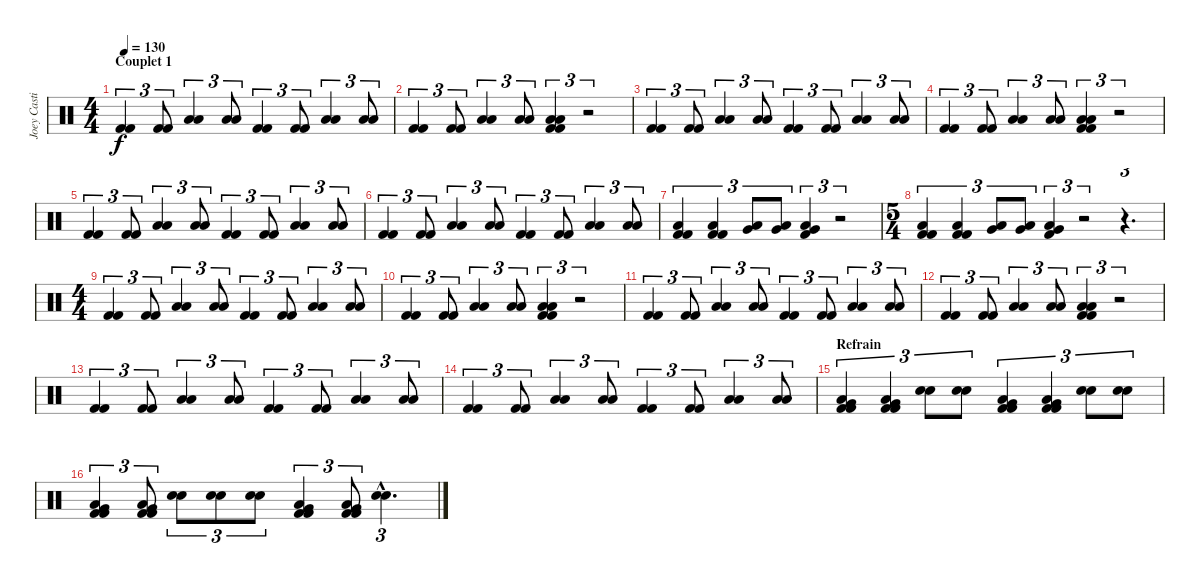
\track ("Joey Castillo" "Joey Casti") {instrument percussion}
\staff {score}
\articulation defaults
\ts (4 4)
\section ("" "Couplet 1")
\tempo 130
\clef neutral
\ks c
("Kick (hit) 2" "Kick (hit) 2").4{tu (3 2) dy f} ("Kick (hit) 2" "Kick (hit) 2").8{tu (3 2)} ("Low Floor Tom (hit)" "Low Floor Tom (hit)").4{tu (3 2)} ("Low Floor Tom (hit)" "Low Floor Tom (hit)").8{tu (3 2)} ("Kick (hit) 2" "Kick (hit) 2").4{tu (3 2)} ("Kick (hit) 2" "Kick (hit) 2").8{tu (3 2)} ("Low Floor Tom (hit)" "Low Floor Tom (hit)").4{tu (3 2)} ("Low Floor Tom (hit)" "Low Floor Tom (hit)").8{tu (3 2)} |
("Kick (hit) 2" "Kick (hit) 2").4{tu (3 2)} ("Kick (hit) 2" "Kick (hit) 2").8{tu (3 2)} ("Low Floor Tom (hit)" "Low Floor Tom (hit)").4{tu (3 2)} ("Low Floor Tom (hit)" "Low Floor Tom (hit)").8{tu (3 2)} ("Low Floor Tom (hit)" "Low Floor Tom (hit)" "Kick (hit) 2" "Kick (hit) 2").4{tu (3 2)} r.2{tu (3 2)} |
("Kick (hit) 2" "Kick (hit) 2").4{tu (3 2)} ("Kick (hit) 2" "Kick (hit) 2").8{tu (3 2)} ("Low Floor Tom (hit)" "Low Floor Tom (hit)").4{tu (3 2)} ("Low Floor Tom (hit)" "Low Floor Tom (hit)").8{tu (3 2)} ("Kick (hit) 2" "Kick (hit) 2").4{tu (3 2)} ("Kick (hit) 2" "Kick (hit) 2").8{tu (3 2)} ("Low Floor Tom (hit)" "Low Floor Tom (hit)").4{tu (3 2)} ("Low Floor Tom (hit)" "Low Floor Tom (hit)").8{tu (3 2)} |
("Kick (hit) 2" "Kick (hit) 2").4{tu (3 2)} ("Kick (hit) 2" "Kick (hit) 2").8{tu (3 2)} ("Low Floor Tom (hit)" "Low Floor Tom (hit)").4{tu (3 2)} ("Low Floor Tom (hit)" "Low Floor Tom (hit)").8{tu (3 2)} ("Low Floor Tom (hit)" "Low Floor Tom (hit)" "Kick (hit) 2" "Kick (hit) 2").4{tu (3 2)} r.2{tu (3 2)} |
("Kick (hit) 2" "Kick (hit) 2").4{tu (3 2)} ("Kick (hit) 2" "Kick (hit) 2").8{tu (3 2)} ("Low Floor Tom (hit)" "Low Floor Tom (hit)").4{tu (3 2)} ("Low Floor Tom (hit)" "Low Floor Tom (hit)").8{tu (3 2)} ("Kick (hit) 2" "Kick (hit) 2").4{tu (3 2)} ("Kick (hit) 2" "Kick (hit) 2").8{tu (3 2)} ("Low Floor Tom (hit)" "Low Floor Tom (hit)").4{tu (3 2)} ("Low Floor Tom (hit)" "Low Floor Tom (hit)").8{tu (3 2)} |
("Kick (hit) 2" "Kick (hit) 2").4{tu (3 2)} ("Kick (hit) 2" "Kick (hit) 2").8{tu (3 2)} ("Low Floor Tom (hit)" "Low Floor Tom (hit)").4{tu (3 2)} ("Low Floor Tom (hit)" "Low Floor Tom (hit)").8{tu (3 2)} ("Kick (hit) 2" "Kick (hit) 2").4{tu (3 2)} ("Kick (hit) 2" "Kick (hit) 2").8{tu (3 2)} ("Low Floor Tom (hit)" "Low Floor Tom (hit)").4{tu (3 2)} ("Low Floor Tom (hit)" "Low Floor Tom (hit)").8{tu (3 2)} |
("Low Floor Tom (hit)" "Kick (hit) 2" "Kick (hit) 2").4{tu (3 2)} ("Low Floor Tom (hit)" "Kick (hit) 2" "Kick (hit) 2").4{tu (3 2)} ("Very Low Tom (hit)" "Low Floor Tom (hit)").8{tu (3 2)} ("Very Low Tom (hit)" "Low Floor Tom (hit)").8{tu (3 2)} ("Very Low Tom (hit)" "Low Floor Tom (hit)" "Kick (hit) 2").4{tu (3 2)} r.2{tu (3 2)} |
\ts (5 4)
("Low Floor Tom (hit)" "Kick (hit) 2" "Kick (hit) 2").4{tu (3 2)} ("Low Floor Tom (hit)" "Kick (hit) 2" "Kick (hit) 2").4{tu (3 2)} ("Very Low Tom (hit)" "Low Floor Tom (hit)").8{tu (3 2)} ("Very Low Tom (hit)" "Low Floor Tom (hit)").8{tu (3 2)} ("Very Low Tom (hit)" "Low Floor Tom (hit)" "Kick (hit) 2").4{tu (3 2)} r.2{tu (3 2)} r.4{d tu (3 2)} |
\ts (4 4)
("Kick (hit) 2" "Kick (hit) 2").4{tu (3 2)} ("Kick (hit) 2" "Kick (hit) 2").8{tu (3 2)} ("Low Floor Tom (hit)" "Low Floor Tom (hit)").4{tu (3 2)} ("Low Floor Tom (hit)" "Low Floor Tom (hit)").8{tu (3 2)} ("Kick (hit) 2" "Kick (hit) 2").4{tu (3 2)} ("Kick (hit) 2" "Kick (hit) 2").8{tu (3 2)} ("Low Floor Tom (hit)" "Low Floor Tom (hit)").4{tu (3 2)} ("Low Floor Tom (hit)" "Low Floor Tom (hit)").8{tu (3 2)} |
("Kick (hit) 2" "Kick (hit) 2").4{tu (3 2)} ("Kick (hit) 2" "Kick (hit) 2").8{tu (3 2)} ("Low Floor Tom (hit)" "Low Floor Tom (hit)").4{tu (3 2)} ("Low Floor Tom (hit)" "Low Floor Tom (hit)").8{tu (3 2)} ("Low Floor Tom (hit)" "Low Floor Tom (hit)" "Kick (hit) 2" "Kick (hit) 2").4{tu (3 2)} r.2{tu (3 2)} |
("Kick (hit) 2" "Kick (hit) 2").4{tu (3 2)} ("Kick (hit) 2" "Kick (hit) 2").8{tu (3 2)} ("Low Floor Tom (hit)" "Low Floor Tom (hit)").4{tu (3 2)} ("Low Floor Tom (hit)" "Low Floor Tom (hit)").8{tu (3 2)} ("Kick (hit) 2" "Kick (hit) 2").4{tu (3 2)} ("Kick (hit) 2" "Kick (hit) 2").8{tu (3 2)} ("Low Floor Tom (hit)" "Low Floor Tom (hit)").4{tu (3 2)} ("Low Floor Tom (hit)" "Low Floor Tom (hit)").8{tu (3 2)} |
("Kick (hit) 2" "Kick (hit) 2").4{tu (3 2)} ("Kick (hit) 2" "Kick (hit) 2").8{tu (3 2)} ("Low Floor Tom (hit)" "Low Floor Tom (hit)").4{tu (3 2)} ("Low Floor Tom (hit)" "Low Floor Tom (hit)").8{tu (3 2)} ("Low Floor Tom (hit)" "Low Floor Tom (hit)" "Kick (hit) 2" "Kick (hit) 2").4{tu (3 2)} r.2{tu (3 2)} |
("Kick (hit) 2" "Kick (hit) 2").4{tu (3 2)} ("Kick (hit) 2" "Kick (hit) 2").8{tu (3 2)} ("Low Floor Tom (hit)" "Low Floor Tom (hit)").4{tu (3 2)} ("Low Floor Tom (hit)" "Low Floor Tom (hit)").8{tu (3 2)} ("Kick (hit) 2" "Kick (hit) 2").4{tu (3 2)} ("Kick (hit) 2" "Kick (hit) 2").8{tu (3 2)} ("Low Floor Tom (hit)" "Low Floor Tom (hit)").4{tu (3 2)} ("Low Floor Tom (hit)" "Low Floor Tom (hit)").8{tu (3 2)} |
("Kick (hit) 2" "Kick (hit) 2").4{tu (3 2)} ("Kick (hit) 2" "Kick (hit) 2").8{tu (3 2)} ("Low Floor Tom (hit)" "Low Floor Tom (hit)").4{tu (3 2)} ("Low Floor Tom (hit)" "Low Floor Tom (hit)").8{tu (3 2)} ("Kick (hit) 2" "Kick (hit) 2").4{tu (3 2)} ("Kick (hit) 2" "Kick (hit) 2").8{tu (3 2)} ("Low Floor Tom (hit)" "Low Floor Tom (hit)").4{tu (3 2)} ("Low Floor Tom (hit)" "Low Floor Tom (hit)").8{tu (3 2)} |
\section ("" "Refrain")
("Low Floor Tom (hit)" "Very Low Tom (hit)" "Kick (hit) 2" "Kick (hit) 2").4{tu (3 2)} ("Low Floor Tom (hit)" "Very Low Tom (hit)" "Kick (hit) 2" "Kick (hit) 2").4{tu (3 2)} ("Electric Snare (hit)" "Electric Snare (hit)").8{tu (3 2)} ("Electric Snare (hit)" "Electric Snare (hit)").8{tu (3 2)} ("Low Floor Tom (hit)" "Very Low Tom (hit)" "Kick (hit) 2" "Kick (hit) 2").4{tu (3 2)} ("Low Floor Tom (hit)" "Very Low Tom (hit)" "Kick (hit) 2" "Kick (hit) 2").4{tu (3 2)} ("Electric Snare (hit)" "Electric Snare (hit)").8{tu (3 2)} ("Electric Snare (hit)" "Electric Snare (hit)").8{tu (3 2)} |
("Low Floor Tom (hit)" "Very Low Tom (hit)" "Kick (hit) 2" "Kick (hit) 2").4{tu (3 2)} ("Low Floor Tom (hit)" "Very Low Tom (hit)" "Kick (hit) 2" "Kick (hit) 2").8{tu (3 2)} ("Electric Snare (hit)" "Electric Snare (hit)").8{tu (3 2)} ("Electric Snare (hit)" "Electric Snare (hit)").8{tu (3 2)} ("Electric Snare (hit)" "Electric Snare (hit)").8{tu (3 2)} ("Low Floor Tom (hit)" "Very Low Tom (hit)" "Kick (hit) 2" "Kick (hit) 2").4{tu (3 2)} ("Low Floor Tom (hit)" "Very Low Tom (hit)" "Kick (hit) 2" "Kick (hit) 2").8{tu (3 2)} ("Electric Snare (hit)"{hac} "Electric Snare (hit)"{hac}).4{d tu (3 2)}
